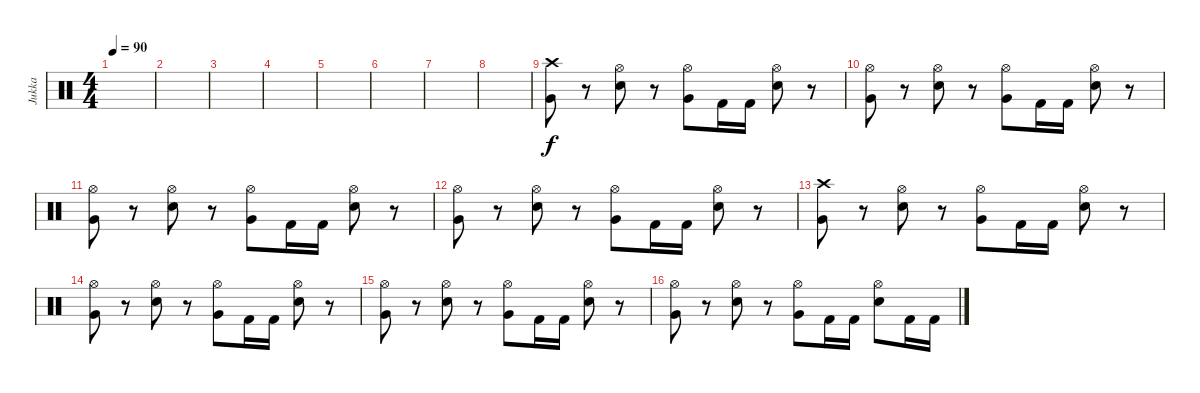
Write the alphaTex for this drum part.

\track ("Jukka" "Jukka") {instrument percussion}
\staff {score}
\articulation defaults
\ts (4 4)
\tempo 90
\clef neutral
\ks c
|
|
|
|
|
|
|
|
("Crash high (hit)" "Very Low Tom (hit)").8 r.8 ("Snare (hit) 2" "Hi-Hat (open)").8 r.8 ("Very Low Tom (hit)" "Hi-Hat (open)").8 "Kick (hit) 2".16 "Kick (hit) 2".16 ("Snare (hit) 2" "Hi-Hat (open)").8 r.8 |
("Hi-Hat (open)" "Very Low Tom (hit)").8 r.8 ("Snare (hit) 2" "Hi-Hat (open)").8 r.8 ("Very Low Tom (hit)" "Hi-Hat (open)").8 "Kick (hit) 2".16 "Kick (hit) 2".16 ("Snare (hit) 2" "Hi-Hat (open)").8 r.8 |
("Hi-Hat (open)" "Very Low Tom (hit)").8 r.8 ("Snare (hit) 2" "Hi-Hat (open)").8 r.8 ("Very Low Tom (hit)" "Hi-Hat (open)").8 "Kick (hit) 2".16 "Kick (hit) 2".16 ("Snare (hit) 2" "Hi-Hat (open)").8 r.8 |
("Hi-Hat (open)" "Very Low Tom (hit)").8 r.8 ("Snare (hit) 2" "Hi-Hat (open)").8 r.8 ("Very Low Tom (hit)" "Hi-Hat (open)").8 "Kick (hit) 2".16 "Kick (hit) 2".16 ("Snare (hit) 2" "Hi-Hat (open)").8 r.8 |
("Crash high (hit)" "Very Low Tom (hit)").8 r.8 ("Snare (hit) 2" "Hi-Hat (open)").8 r.8 ("Very Low Tom (hit)" "Hi-Hat (open)").8 "Kick (hit) 2".16 "Kick (hit) 2".16 ("Snare (hit) 2" "Hi-Hat (open)").8 r.8 |
("Hi-Hat (open)" "Very Low Tom (hit)").8 r.8 ("Snare (hit) 2" "Hi-Hat (open)").8 r.8 ("Very Low Tom (hit)" "Hi-Hat (open)").8 "Kick (hit) 2".16 "Kick (hit) 2".16 ("Snare (hit) 2" "Hi-Hat (open)").8 r.8 |
("Hi-Hat (open)" "Very Low Tom (hit)").8 r.8 ("Snare (hit) 2" "Hi-Hat (open)").8 r.8 ("Very Low Tom (hit)" "Hi-Hat (open)").8 "Kick (hit) 2".16 "Kick (hit) 2".16 ("Snare (hit) 2" "Hi-Hat (open)").8 r.8 |
("Hi-Hat (open)" "Very Low Tom (hit)").8 r.8 ("Snare (hit) 2" "Hi-Hat (open)").8 r.8 ("Very Low Tom (hit)" "Hi-Hat (open)").8 "Kick (hit) 2".16 "Kick (hit) 2".16 ("Snare (hit) 2" "Hi-Hat (open)").8 "Kick (hit) 2".16 "Kick (hit) 2".16
